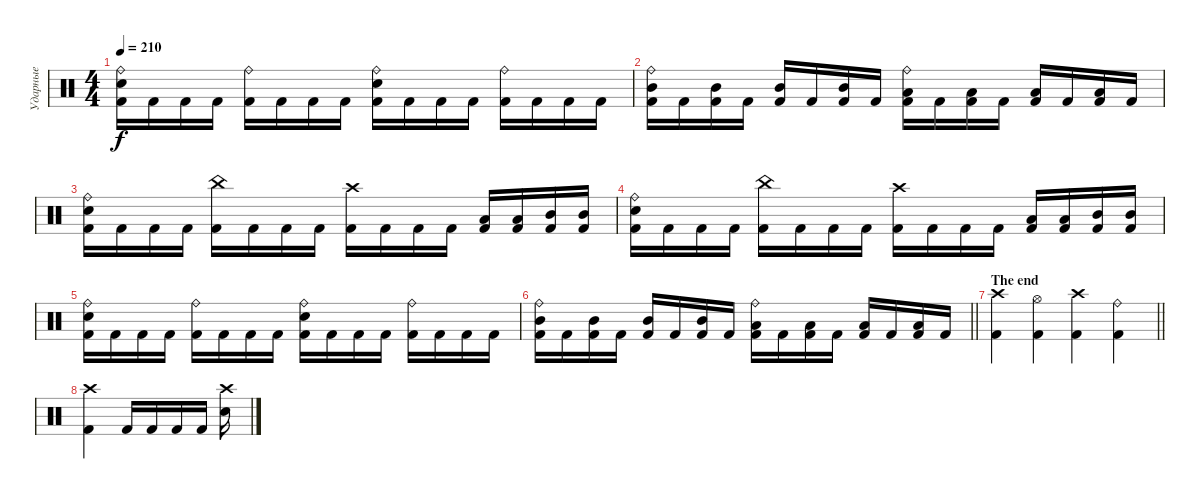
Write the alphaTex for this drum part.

\track ("Ударные" "Ударные") {instrument percussion}
\staff {score}
\articulation defaults
\ts (4 4)
\tempo 210
\clef neutral
\ks c
("Ride (bell)" "Snare (hit) 2" "Kick (hit) 2").16{dy f} "Kick (hit) 2".16 "Kick (hit) 2".16 "Kick (hit) 2".16 ("Ride (bell)" "Kick (hit) 2").16 "Kick (hit) 2".16 "Kick (hit) 2".16 "Kick (hit) 2".16 ("Ride (bell)" "Snare (hit) 2" "Kick (hit) 2").16 "Kick (hit) 2".16 "Kick (hit) 2".16 "Kick (hit) 2".16 ("Ride (bell)" "Kick (hit) 2").16 "Kick (hit) 2".16 "Kick (hit) 2".16 "Kick (hit) 2".16 |
("Ride (bell)" "Mid Tom (hit)" "Kick (hit) 2").16 "Kick (hit) 2".16 ("Mid Tom (hit)" "Kick (hit) 2").16 "Kick (hit) 2".16 ("Mid Tom (hit)" "Kick (hit) 2").16 "Kick (hit) 2".16 ("Mid Tom (hit)" "Kick (hit) 2").16 "Kick (hit) 2".16 ("Ride (bell)" "Low Tom (hit)" "Kick (hit) 2").16 "Kick (hit) 2".16 ("Low Tom (hit)" "Kick (hit) 2").16 "Kick (hit) 2".16 ("Low Tom (hit)" "Kick (hit) 2").16 "Kick (hit) 2".16 ("Low Tom (hit)" "Kick (hit) 2").16 "Kick (hit) 2".16 |
("Ride (bell)" "Snare (hit) 2" "Kick (hit) 2").16 "Kick (hit) 2".16 "Kick (hit) 2".16 "Kick (hit) 2".16 ("China (hit)" "Kick (hit) 2").16 "Kick (hit) 2".16 "Kick (hit) 2".16 "Kick (hit) 2".16 ("Crash high (hit)" "Kick (hit) 2").16 "Kick (hit) 2".16 "Kick (hit) 2".16 "Kick (hit) 2".16 ("Low Tom (hit)" "Kick (hit) 2").16 ("Low Tom (hit)" "Kick (hit) 2").16 ("Mid Tom (hit)" "Kick (hit) 2").16 ("Mid Tom (hit)" "Kick (hit) 2").16 |
("Ride (bell)" "Snare (hit) 2" "Kick (hit) 2").16 "Kick (hit) 2".16 "Kick (hit) 2".16 "Kick (hit) 2".16 ("China (hit)" "Kick (hit) 2").16 "Kick (hit) 2".16 "Kick (hit) 2".16 "Kick (hit) 2".16 ("Crash high (hit)" "Kick (hit) 2").16 "Kick (hit) 2".16 "Kick (hit) 2".16 "Kick (hit) 2".16 ("Low Tom (hit)" "Kick (hit) 2").16 ("Low Tom (hit)" "Kick (hit) 2").16 ("Mid Tom (hit)" "Kick (hit) 2").16 ("Mid Tom (hit)" "Kick (hit) 2").16 |
("Ride (bell)" "Snare (hit) 2" "Kick (hit) 2").16 "Kick (hit) 2".16 "Kick (hit) 2".16 "Kick (hit) 2".16 ("Ride (bell)" "Kick (hit) 2").16 "Kick (hit) 2".16 "Kick (hit) 2".16 "Kick (hit) 2".16 ("Ride (bell)" "Snare (hit) 2" "Kick (hit) 2").16 "Kick (hit) 2".16 "Kick (hit) 2".16 "Kick (hit) 2".16 ("Ride (bell)" "Kick (hit) 2").16 "Kick (hit) 2".16 "Kick (hit) 2".16 "Kick (hit) 2".16 |
\barLineRight lightlight
("Ride (bell)" "Mid Tom (hit)" "Kick (hit) 2").16 "Kick (hit) 2".16 ("Mid Tom (hit)" "Kick (hit) 2").16 "Kick (hit) 2".16 ("Mid Tom (hit)" "Kick (hit) 2").16 "Kick (hit) 2".16 ("Mid Tom (hit)" "Kick (hit) 2").16 "Kick (hit) 2".16 ("Ride (bell)" "Low Tom (hit)" "Kick (hit) 2").16 "Kick (hit) 2".16 ("Low Tom (hit)" "Kick (hit) 2").16 "Kick (hit) 2".16 ("Low Tom (hit)" "Kick (hit) 2").16 "Kick (hit) 2".16 ("Low Tom (hit)" "Kick (hit) 2").16 "Kick (hit) 2".16 |
\section ("" "The end")
\barLineRight lightlight
("Crash high (hit)" "Kick (hit) 2").4 ("Hi-Hat (open)" "Kick (hit) 2").4 ("Crash high (hit)" "Kick (hit) 2").4 ("Ride (bell)" "Kick (hit) 2").4 |
("Crash high (hit)" "Kick (hit) 2").4 "Kick (hit) 2".16 "Kick (hit) 2".16 "Kick (hit) 2".16 "Kick (hit) 2".16 ("Crash high (hit)" "Snare (hit) 2").16
